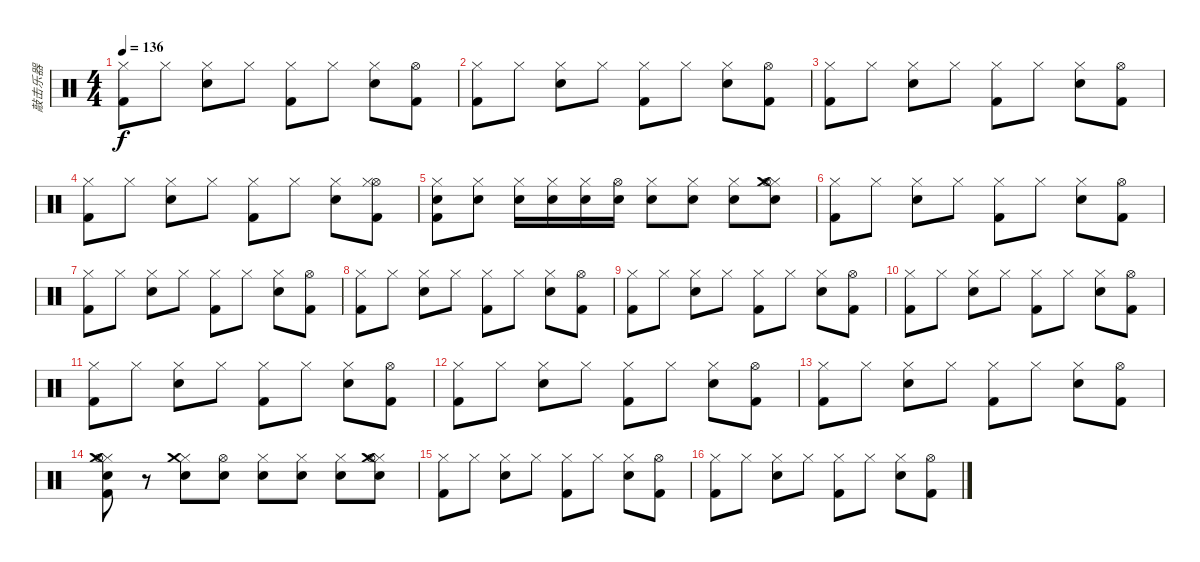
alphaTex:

\track ("敲击乐器" "敲击乐器") {instrument percussion}
\staff {score}
\articulation defaults
\ts (4 4)
\tempo 136
\clef neutral
\ks c
("Hi-Hat (closed)" "Kick (hit) 2").8{dy f} "Hi-Hat (closed)".8 ("Hi-Hat (closed)" "Electric Snare (hit)").8 "Hi-Hat (closed)".8 ("Hi-Hat (closed)" "Kick (hit) 2").8 "Hi-Hat (closed)".8 ("Hi-Hat (closed)" "Electric Snare (hit)").8 ("Hi-Hat (open)" "Kick (hit) 2").8 |
("Hi-Hat (closed)" "Kick (hit) 2").8 "Hi-Hat (closed)".8 ("Hi-Hat (closed)" "Electric Snare (hit)").8 "Hi-Hat (closed)".8 ("Hi-Hat (closed)" "Kick (hit) 2").8 "Hi-Hat (closed)".8 ("Hi-Hat (closed)" "Electric Snare (hit)").8 ("Hi-Hat (open)" "Kick (hit) 2").8 |
("Hi-Hat (closed)" "Kick (hit) 2").8 "Hi-Hat (closed)".8 ("Hi-Hat (closed)" "Electric Snare (hit)").8 "Hi-Hat (closed)".8 ("Hi-Hat (closed)" "Kick (hit) 2").8 "Hi-Hat (closed)".8 ("Hi-Hat (closed)" "Electric Snare (hit)").8 ("Hi-Hat (open)" "Kick (hit) 2").8 |
("Hi-Hat (closed)" "Kick (hit) 2").8 "Hi-Hat (closed)".8 ("Hi-Hat (closed)" "Electric Snare (hit)").8 "Hi-Hat (closed)".8 ("Hi-Hat (closed)" "Kick (hit) 2").8 "Hi-Hat (closed)".8 ("Hi-Hat (closed)" "Electric Snare (hit)").8 ("Hi-Hat (open)" "Hi-Hat (closed)" "Kick (hit) 2").8 |
("Hi-Hat (closed)" "Snare (hit) 2" "Kick (hit) 2").8 ("Hi-Hat (closed)" "Snare (hit) 2").8 ("Hi-Hat (closed)" "Snare (hit) 2").16 ("Hi-Hat (closed)" "Snare (hit) 2").16 ("Hi-Hat (closed)" "Snare (hit) 2").16 ("Hi-Hat (open)" "Snare (hit) 2").16 ("Hi-Hat (closed)" "Snare (hit) 2").8 ("Hi-Hat (closed)" "Snare (hit) 2").8 ("Hi-Hat (closed)" "Snare (hit) 2").8 ("Hi-Hat (closed)" "Snare (hit) 2" "Hi-Hat (open)" "Crash medium (hit)").8{volume 16} |
("Hi-Hat (closed)" "Kick (hit) 2").8 "Hi-Hat (closed)".8 ("Hi-Hat (closed)" "Electric Snare (hit)").8 "Hi-Hat (closed)".8 ("Hi-Hat (closed)" "Kick (hit) 2").8 "Hi-Hat (closed)".8 ("Hi-Hat (closed)" "Electric Snare (hit)").8 ("Hi-Hat (open)" "Kick (hit) 2").8 |
("Hi-Hat (closed)" "Kick (hit) 2").8{volume 13} "Hi-Hat (closed)".8 ("Hi-Hat (closed)" "Electric Snare (hit)").8 "Hi-Hat (closed)".8 ("Hi-Hat (closed)" "Kick (hit) 2").8 "Hi-Hat (closed)".8 ("Hi-Hat (closed)" "Electric Snare (hit)").8 ("Hi-Hat (open)" "Kick (hit) 2").8 |
("Hi-Hat (closed)" "Kick (hit) 2").8 "Hi-Hat (closed)".8 ("Hi-Hat (closed)" "Electric Snare (hit)").8 "Hi-Hat (closed)".8 ("Hi-Hat (closed)" "Kick (hit) 2").8 "Hi-Hat (closed)".8 ("Hi-Hat (closed)" "Electric Snare (hit)").8 ("Hi-Hat (open)" "Kick (hit) 2").8 |
("Hi-Hat (closed)" "Kick (hit) 2").8 "Hi-Hat (closed)".8 ("Hi-Hat (closed)" "Electric Snare (hit)").8 "Hi-Hat (closed)".8 ("Hi-Hat (closed)" "Kick (hit) 2").8 "Hi-Hat (closed)".8 ("Hi-Hat (closed)" "Electric Snare (hit)").8 ("Hi-Hat (open)" "Kick (hit) 2").8 |
("Hi-Hat (closed)" "Kick (hit) 2").8 "Hi-Hat (closed)".8 ("Hi-Hat (closed)" "Electric Snare (hit)").8 "Hi-Hat (closed)".8 ("Hi-Hat (closed)" "Kick (hit) 2").8 "Hi-Hat (closed)".8 ("Hi-Hat (closed)" "Electric Snare (hit)").8 ("Hi-Hat (open)" "Kick (hit) 2").8 |
("Hi-Hat (closed)" "Kick (hit) 2").8 "Hi-Hat (closed)".8 ("Hi-Hat (closed)" "Electric Snare (hit)").8 "Hi-Hat (closed)".8 ("Hi-Hat (closed)" "Kick (hit) 2").8 "Hi-Hat (closed)".8 ("Hi-Hat (closed)" "Electric Snare (hit)").8 ("Hi-Hat (open)" "Kick (hit) 2").8 |
("Hi-Hat (closed)" "Kick (hit) 2").8 "Hi-Hat (closed)".8 ("Hi-Hat (closed)" "Electric Snare (hit)").8 "Hi-Hat (closed)".8 ("Hi-Hat (closed)" "Kick (hit) 2").8 "Hi-Hat (closed)".8 ("Hi-Hat (closed)" "Electric Snare (hit)").8 ("Hi-Hat (open)" "Kick (hit) 2").8 |
("Hi-Hat (closed)" "Kick (hit) 2").8 "Hi-Hat (closed)".8 ("Hi-Hat (closed)" "Electric Snare (hit)").8 "Hi-Hat (closed)".8 ("Hi-Hat (closed)" "Kick (hit) 2").8 "Hi-Hat (closed)".8 ("Hi-Hat (closed)" "Electric Snare (hit)").8 ("Hi-Hat (open)" "Kick (hit) 2").8 |
("Hi-Hat (closed)" "Snare (hit) 2" "Crash medium (hit)" "Hi-Hat (open)" "Kick (hit) 2").8 r.8 ("Hi-Hat (closed)" "Snare (hit) 2" "Crash medium (hit)").8 ("Hi-Hat (open)" "Snare (hit) 2").8 ("Hi-Hat (closed)" "Snare (hit) 2").8 ("Hi-Hat (closed)" "Snare (hit) 2").8 ("Hi-Hat (closed)" "Snare (hit) 2").8 ("Hi-Hat (closed)" "Snare (hit) 2" "Hi-Hat (open)" "Crash medium (hit)").8{volume 16} |
("Hi-Hat (closed)" "Kick (hit) 2").8 "Hi-Hat (closed)".8 ("Hi-Hat (closed)" "Electric Snare (hit)").8 "Hi-Hat (closed)".8 ("Hi-Hat (closed)" "Kick (hit) 2").8 "Hi-Hat (closed)".8 ("Hi-Hat (closed)" "Electric Snare (hit)").8 ("Hi-Hat (open)" "Kick (hit) 2").8 |
("Hi-Hat (closed)" "Kick (hit) 2").8{volume 13} "Hi-Hat (closed)".8 ("Hi-Hat (closed)" "Electric Snare (hit)").8 "Hi-Hat (closed)".8 ("Hi-Hat (closed)" "Kick (hit) 2").8 "Hi-Hat (closed)".8 ("Hi-Hat (closed)" "Electric Snare (hit)").8 ("Hi-Hat (open)" "Kick (hit) 2").8
